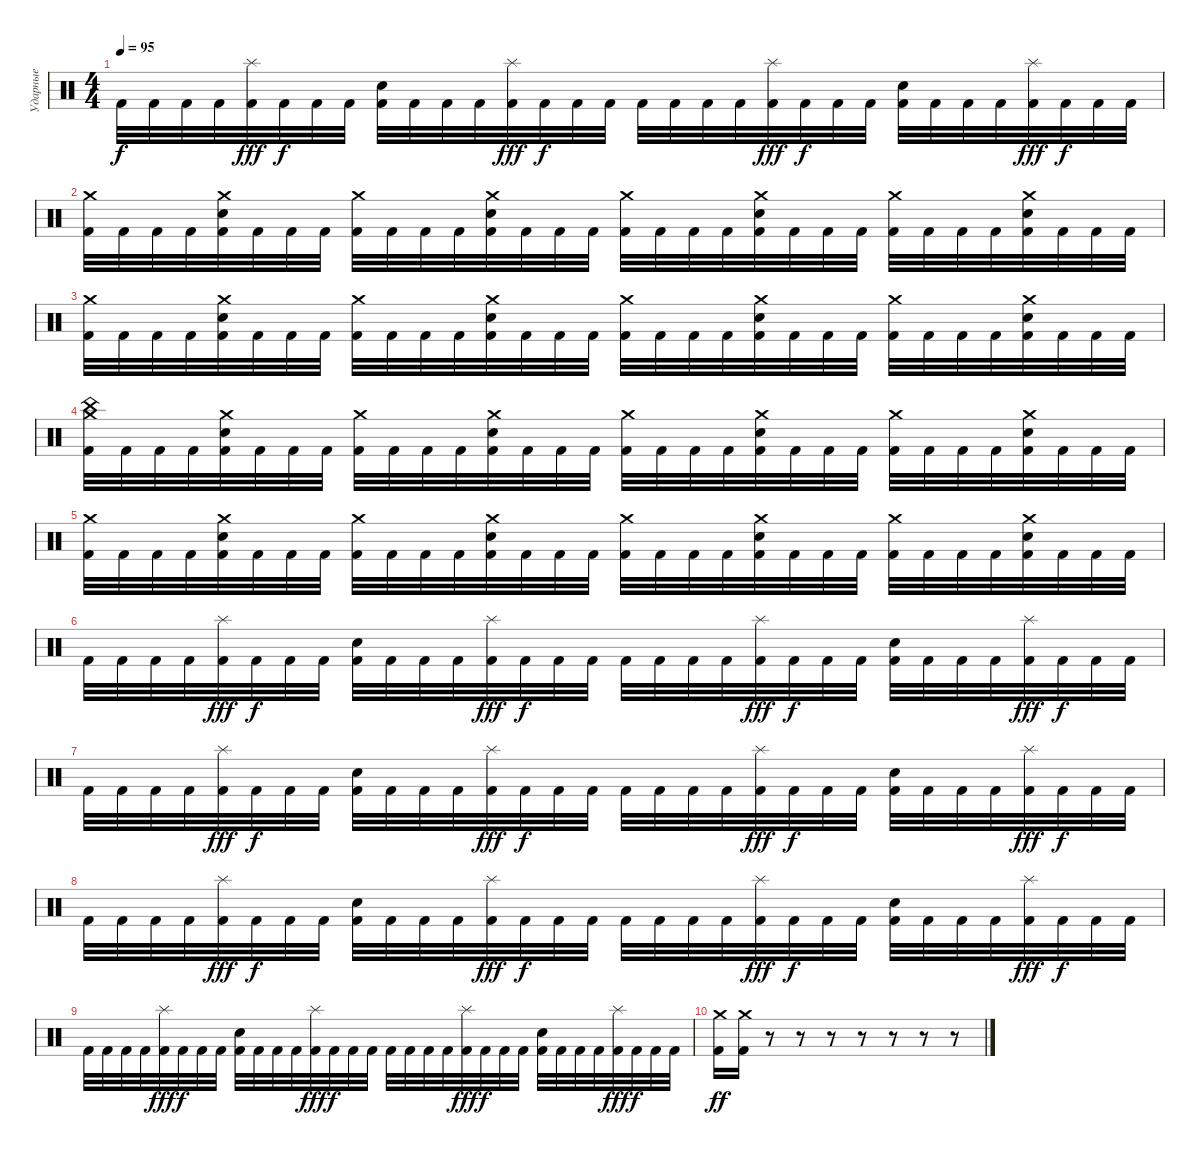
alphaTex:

\track ("Ударные" "Ударные") {instrument percussion}
\staff {score}
\articulation defaults
\ts (4 4)
\tempo 95
\clef neutral
\ks c "Kick (hit) 2".32{dy f} "Kick (hit) 2".32 "Kick (hit) 2".32 "Kick (hit) 2".32
("Kick (hit) 2" "Splash (hit)").32{dy fff} "Kick (hit) 2".32{dy f} "Kick (hit) 2".32 "Kick (hit) 2".32 ("Kick (hit) 2" "Electric Snare (hit)").32 "Kick (hit) 2".32 "Kick (hit) 2".32 "Kick (hit) 2".32 ("Kick (hit) 2" "Splash (hit)").32{dy fff} "Kick (hit) 2".32{dy f} "Kick (hit) 2".32 "Kick (hit) 2".32 "Kick (hit) 2".32 "Kick (hit) 2".32 "Kick (hit) 2".32 "Kick (hit) 2".32 ("Kick (hit) 2" "Splash (hit)").32{dy fff} "Kick (hit) 2".32{dy f} "Kick (hit) 2".32 "Kick (hit) 2".32 ("Kick (hit) 2" "Electric Snare (hit)").32 "Kick (hit) 2".32 "Kick (hit) 2".32 "Kick (hit) 2".32 ("Kick (hit) 2" "Splash (hit)").32{dy fff} "Kick (hit) 2".32{dy f} "Kick (hit) 2".32 "Kick (hit) 2".32 |
("Kick (hit) 2" "Crash medium (hit)").32 "Kick (hit) 2".32 "Kick (hit) 2".32 "Kick (hit) 2".32 ("Kick (hit) 2" "Electric Snare (hit)" "Crash medium (hit)").32 "Kick (hit) 2".32 "Kick (hit) 2".32 "Kick (hit) 2".32 ("Kick (hit) 2" "Crash medium (hit)").32 "Kick (hit) 2".32 "Kick (hit) 2".32 "Kick (hit) 2".32 ("Kick (hit) 2" "Electric Snare (hit)" "Crash medium (hit)").32 "Kick (hit) 2".32 "Kick (hit) 2".32 "Kick (hit) 2".32 ("Kick (hit) 2" "Crash medium (hit)").32 "Kick (hit) 2".32 "Kick (hit) 2".32 "Kick (hit) 2".32 ("Kick (hit) 2" "Electric Snare (hit)" "Crash medium (hit)").32 "Kick (hit) 2".32 "Kick (hit) 2".32 "Kick (hit) 2".32 ("Kick (hit) 2" "Crash medium (hit)").32 "Kick (hit) 2".32 "Kick (hit) 2".32 "Kick (hit) 2".32 ("Kick (hit) 2" "Electric Snare (hit)" "Crash medium (hit)").32 "Kick (hit) 2".32 "Kick (hit) 2".32 "Kick (hit) 2".32 |
("Kick (hit) 2" "Crash medium (hit)").32 "Kick (hit) 2".32 "Kick (hit) 2".32 "Kick (hit) 2".32 ("Kick (hit) 2" "Electric Snare (hit)" "Crash medium (hit)").32 "Kick (hit) 2".32 "Kick (hit) 2".32 "Kick (hit) 2".32 ("Kick (hit) 2" "Crash medium (hit)").32 "Kick (hit) 2".32 "Kick (hit) 2".32 "Kick (hit) 2".32 ("Kick (hit) 2" "Electric Snare (hit)" "Crash medium (hit)").32 "Kick (hit) 2".32 "Kick (hit) 2".32 "Kick (hit) 2".32 ("Kick (hit) 2" "Crash medium (hit)").32 "Kick (hit) 2".32 "Kick (hit) 2".32 "Kick (hit) 2".32 ("Kick (hit) 2" "Electric Snare (hit)" "Crash medium (hit)").32 "Kick (hit) 2".32 "Kick (hit) 2".32 "Kick (hit) 2".32 ("Kick (hit) 2" "Crash medium (hit)").32 "Kick (hit) 2".32 "Kick (hit) 2".32 "Kick (hit) 2".32 ("Kick (hit) 2" "Electric Snare (hit)" "Crash medium (hit)").32 "Kick (hit) 2".32 "Kick (hit) 2".32 "Kick (hit) 2".32 |
("Kick (hit) 2" "China (hit)" "Crash medium (hit)").32 "Kick (hit) 2".32 "Kick (hit) 2".32 "Kick (hit) 2".32 ("Kick (hit) 2" "Electric Snare (hit)" "Crash medium (hit)").32 "Kick (hit) 2".32 "Kick (hit) 2".32 "Kick (hit) 2".32 ("Kick (hit) 2" "Crash medium (hit)").32 "Kick (hit) 2".32 "Kick (hit) 2".32 "Kick (hit) 2".32 ("Kick (hit) 2" "Electric Snare (hit)" "Crash medium (hit)").32 "Kick (hit) 2".32 "Kick (hit) 2".32 "Kick (hit) 2".32 ("Kick (hit) 2" "Crash medium (hit)").32 "Kick (hit) 2".32 "Kick (hit) 2".32 "Kick (hit) 2".32 ("Kick (hit) 2" "Electric Snare (hit)" "Crash medium (hit)").32 "Kick (hit) 2".32 "Kick (hit) 2".32 "Kick (hit) 2".32 ("Kick (hit) 2" "Crash medium (hit)").32 "Kick (hit) 2".32 "Kick (hit) 2".32 "Kick (hit) 2".32 ("Kick (hit) 2" "Electric Snare (hit)" "Crash medium (hit)").32 "Kick (hit) 2".32 "Kick (hit) 2".32 "Kick (hit) 2".32 |
("Kick (hit) 2" "Crash medium (hit)").32 "Kick (hit) 2".32 "Kick (hit) 2".32 "Kick (hit) 2".32 ("Kick (hit) 2" "Electric Snare (hit)" "Crash medium (hit)").32 "Kick (hit) 2".32 "Kick (hit) 2".32 "Kick (hit) 2".32 ("Kick (hit) 2" "Crash medium (hit)").32 "Kick (hit) 2".32 "Kick (hit) 2".32 "Kick (hit) 2".32 ("Kick (hit) 2" "Electric Snare (hit)" "Crash medium (hit)").32 "Kick (hit) 2".32 "Kick (hit) 2".32 "Kick (hit) 2".32 ("Kick (hit) 2" "Crash medium (hit)").32 "Kick (hit) 2".32 "Kick (hit) 2".32 "Kick (hit) 2".32 ("Kick (hit) 2" "Electric Snare (hit)" "Crash medium (hit)").32 "Kick (hit) 2".32 "Kick (hit) 2".32 "Kick (hit) 2".32 ("Kick (hit) 2" "Crash medium (hit)").32 "Kick (hit) 2".32 "Kick (hit) 2".32 "Kick (hit) 2".32 ("Kick (hit) 2" "Electric Snare (hit)" "Crash medium (hit)").32 "Kick (hit) 2".32 "Kick (hit) 2".32 "Kick (hit) 2".32 |
"Kick (hit) 2".32 "Kick (hit) 2".32 "Kick (hit) 2".32 "Kick (hit) 2".32 ("Kick (hit) 2" "Splash (hit)").32{dy fff} "Kick (hit) 2".32{dy f} "Kick (hit) 2".32 "Kick (hit) 2".32 ("Kick (hit) 2" "Electric Snare (hit)").32 "Kick (hit) 2".32 "Kick (hit) 2".32 "Kick (hit) 2".32 ("Kick (hit) 2" "Splash (hit)").32{dy fff} "Kick (hit) 2".32{dy f} "Kick (hit) 2".32 "Kick (hit) 2".32 "Kick (hit) 2".32 "Kick (hit) 2".32 "Kick (hit) 2".32 "Kick (hit) 2".32 ("Kick (hit) 2" "Splash (hit)").32{dy fff} "Kick (hit) 2".32{dy f} "Kick (hit) 2".32 "Kick (hit) 2".32 ("Kick (hit) 2" "Electric Snare (hit)").32 "Kick (hit) 2".32 "Kick (hit) 2".32 "Kick (hit) 2".32 ("Kick (hit) 2" "Splash (hit)").32{dy fff} "Kick (hit) 2".32{dy f} "Kick (hit) 2".32 "Kick (hit) 2".32 |
"Kick (hit) 2".32 "Kick (hit) 2".32 "Kick (hit) 2".32 "Kick (hit) 2".32 ("Kick (hit) 2" "Splash (hit)").32{dy fff} "Kick (hit) 2".32{dy f} "Kick (hit) 2".32 "Kick (hit) 2".32 ("Kick (hit) 2" "Electric Snare (hit)").32 "Kick (hit) 2".32 "Kick (hit) 2".32 "Kick (hit) 2".32 ("Kick (hit) 2" "Splash (hit)").32{dy fff} "Kick (hit) 2".32{dy f} "Kick (hit) 2".32 "Kick (hit) 2".32 "Kick (hit) 2".32 "Kick (hit) 2".32 "Kick (hit) 2".32 "Kick (hit) 2".32 ("Kick (hit) 2" "Splash (hit)").32{dy fff} "Kick (hit) 2".32{dy f} "Kick (hit) 2".32 "Kick (hit) 2".32 ("Kick (hit) 2" "Electric Snare (hit)").32 "Kick (hit) 2".32 "Kick (hit) 2".32 "Kick (hit) 2".32 ("Kick (hit) 2" "Splash (hit)").32{dy fff} "Kick (hit) 2".32{dy f} "Kick (hit) 2".32 "Kick (hit) 2".32 |
"Kick (hit) 2".32 "Kick (hit) 2".32 "Kick (hit) 2".32 "Kick (hit) 2".32 ("Kick (hit) 2" "Splash (hit)").32{dy fff} "Kick (hit) 2".32{dy f} "Kick (hit) 2".32 "Kick (hit) 2".32 ("Kick (hit) 2" "Electric Snare (hit)").32 "Kick (hit) 2".32 "Kick (hit) 2".32 "Kick (hit) 2".32 ("Kick (hit) 2" "Splash (hit)").32{dy fff} "Kick (hit) 2".32{dy f} "Kick (hit) 2".32 "Kick (hit) 2".32 "Kick (hit) 2".32 "Kick (hit) 2".32 "Kick (hit) 2".32 "Kick (hit) 2".32 ("Kick (hit) 2" "Splash (hit)").32{dy fff} "Kick (hit) 2".32{dy f} "Kick (hit) 2".32 "Kick (hit) 2".32 ("Kick (hit) 2" "Electric Snare (hit)").32 "Kick (hit) 2".32 "Kick (hit) 2".32 "Kick (hit) 2".32 ("Kick (hit) 2" "Splash (hit)").32{dy fff} "Kick (hit) 2".32{dy f} "Kick (hit) 2".32 "Kick (hit) 2".32 |
"Kick (hit) 2".32 "Kick (hit) 2".32 "Kick (hit) 2".32 "Kick (hit) 2".32 ("Kick (hit) 2" "Splash (hit)").32{dy fff} "Kick (hit) 2".32{dy f} "Kick (hit) 2".32 "Kick (hit) 2".32 ("Kick (hit) 2" "Electric Snare (hit)").32 "Kick (hit) 2".32 "Kick (hit) 2".32 "Kick (hit) 2".32 ("Kick (hit) 2" "Splash (hit)").32{dy fff} "Kick (hit) 2".32{dy f} "Kick (hit) 2".32 "Kick (hit) 2".32 "Kick (hit) 2".32 "Kick (hit) 2".32 "Kick (hit) 2".32 "Kick (hit) 2".32 ("Kick (hit) 2" "Splash (hit)").32{dy fff} "Kick (hit) 2".32{dy f} "Kick (hit) 2".32 "Kick (hit) 2".32 ("Kick (hit) 2" "Electric Snare (hit)").32 "Kick (hit) 2".32 "Kick (hit) 2".32 "Kick (hit) 2".32 ("Kick (hit) 2" "Splash (hit)").32{dy fff} "Kick (hit) 2".32{dy f} "Kick (hit) 2".32 "Kick (hit) 2".32 |
("Crash medium (hit)" "Kick (hit) 2").16{dy ff} ("Crash medium (hit)" "Kick (hit) 2").16 r.8 r.8 r.8 r.8 r.8 r.8 r.8
